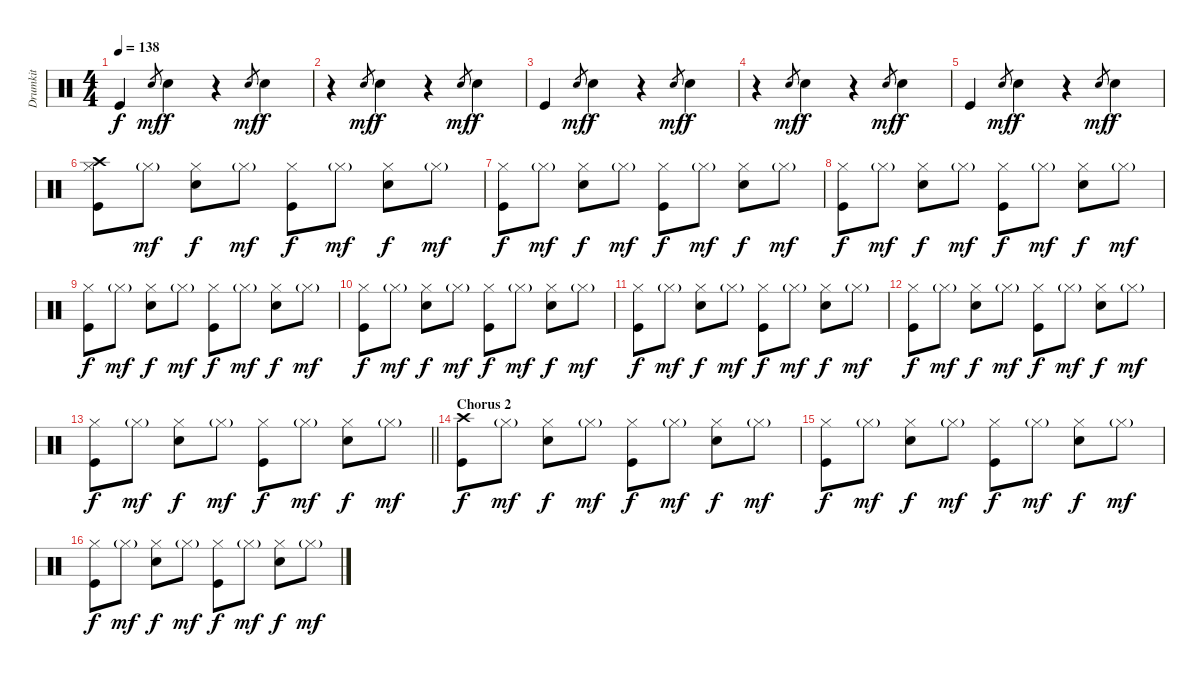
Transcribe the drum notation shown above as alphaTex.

\track ("Drumkit" "Drumkit") {instrument percussion}
\staff {score}
\articulation defaults
\ts (4 4)
\tempo 138
\clef neutral
\ks c "Kick (hit)".4{dy f} "Snare (hit)".8{gr dy mf} "Snare (hit) 2".4{dy f}
r.4 "Snare (hit)".8{gr dy mf} "Snare (hit) 2".4{dy f} |
r.4 "Snare (hit)".8{gr dy mf} "Snare (hit) 2".4{dy f} r.4 "Snare (hit)".8{gr dy mf} "Snare (hit) 2".4{dy f} |
"Kick (hit)".4 "Snare (hit)".8{gr dy mf} "Snare (hit) 2".4{dy f} r.4 "Snare (hit)".8{gr dy mf} "Snare (hit) 2".4{dy f} |
r.4 "Snare (hit)".8{gr dy mf} "Snare (hit) 2".4{dy f} r.4 "Snare (hit)".8{gr dy mf} "Snare (hit) 2".4{dy f} |
"Kick (hit)".4 "Snare (hit)".8{gr dy mf} "Snare (hit) 2".4{dy f} r.4 "Snare (hit)".8{gr dy mf} "Snare (hit) 2".4{dy f} |
("Crash high (hit)" "Hi-Hat (closed)" "Kick (hit)").8 "Hi-Hat (closed)"{g}.8{dy mf} ("Hi-Hat (closed)" "Snare (hit) 2").8{dy f} "Hi-Hat (closed)"{g}.8{dy mf} ("Hi-Hat (closed)" "Kick (hit)").8{dy f} "Hi-Hat (closed)"{g}.8{dy mf} ("Hi-Hat (closed)" "Snare (hit) 2").8{dy f} "Hi-Hat (closed)"{g}.8{dy mf} |
("Hi-Hat (closed)" "Kick (hit)").8{dy f} "Hi-Hat (closed)"{g}.8{dy mf} ("Hi-Hat (closed)" "Snare (hit) 2").8{dy f} "Hi-Hat (closed)"{g}.8{dy mf} ("Hi-Hat (closed)" "Kick (hit)").8{dy f} "Hi-Hat (closed)"{g}.8{dy mf} ("Hi-Hat (closed)" "Snare (hit) 2").8{dy f} "Hi-Hat (closed)"{g}.8{dy mf} |
("Hi-Hat (closed)" "Kick (hit)").8{dy f} "Hi-Hat (closed)"{g}.8{dy mf} ("Hi-Hat (closed)" "Snare (hit) 2").8{dy f} "Hi-Hat (closed)"{g}.8{dy mf} ("Hi-Hat (closed)" "Kick (hit)").8{dy f} "Hi-Hat (closed)"{g}.8{dy mf} ("Hi-Hat (closed)" "Snare (hit) 2").8{dy f} "Hi-Hat (closed)"{g}.8{dy mf} |
("Hi-Hat (closed)" "Kick (hit)").8{dy f} "Hi-Hat (closed)"{g}.8{dy mf} ("Hi-Hat (closed)" "Snare (hit) 2").8{dy f} "Hi-Hat (closed)"{g}.8{dy mf} ("Hi-Hat (closed)" "Kick (hit)").8{dy f} "Hi-Hat (closed)"{g}.8{dy mf} ("Hi-Hat (closed)" "Snare (hit) 2").8{dy f} "Hi-Hat (closed)"{g}.8{dy mf} |
("Hi-Hat (closed)" "Kick (hit)").8{dy f} "Hi-Hat (closed)"{g}.8{dy mf} ("Hi-Hat (closed)" "Snare (hit) 2").8{dy f} "Hi-Hat (closed)"{g}.8{dy mf} ("Hi-Hat (closed)" "Kick (hit)").8{dy f} "Hi-Hat (closed)"{g}.8{dy mf} ("Hi-Hat (closed)" "Snare (hit) 2").8{dy f} "Hi-Hat (closed)"{g}.8{dy mf} |
("Hi-Hat (closed)" "Kick (hit)").8{dy f} "Hi-Hat (closed)"{g}.8{dy mf} ("Hi-Hat (closed)" "Snare (hit) 2").8{dy f} "Hi-Hat (closed)"{g}.8{dy mf} ("Hi-Hat (closed)" "Kick (hit)").8{dy f} "Hi-Hat (closed)"{g}.8{dy mf} ("Hi-Hat (closed)" "Snare (hit) 2").8{dy f} "Hi-Hat (closed)"{g}.8{dy mf} |
("Hi-Hat (closed)" "Kick (hit)").8{dy f} "Hi-Hat (closed)"{g}.8{dy mf} ("Hi-Hat (closed)" "Snare (hit) 2").8{dy f} "Hi-Hat (closed)"{g}.8{dy mf} ("Hi-Hat (closed)" "Kick (hit)").8{dy f} "Hi-Hat (closed)"{g}.8{dy mf} ("Hi-Hat (closed)" "Snare (hit) 2").8{dy f} "Hi-Hat (closed)"{g}.8{dy mf} |
\barLineRight lightlight
("Hi-Hat (closed)" "Kick (hit)").8{dy f} "Hi-Hat (closed)"{g}.8{dy mf} ("Hi-Hat (closed)" "Snare (hit) 2").8{dy f} "Hi-Hat (closed)"{g}.8{dy mf} ("Hi-Hat (closed)" "Kick (hit)").8{dy f} "Hi-Hat (closed)"{g}.8{dy mf} ("Hi-Hat (closed)" "Snare (hit) 2").8{dy f} "Hi-Hat (closed)"{g}.8{dy mf} |
\section ("" "Chorus 2")
("Crash high (hit)" "Kick (hit)").8{dy f} "Hi-Hat (closed)"{g}.8{dy mf} ("Hi-Hat (closed)" "Snare (hit) 2").8{dy f} "Hi-Hat (closed)"{g}.8{dy mf} ("Hi-Hat (closed)" "Kick (hit)").8{dy f} "Hi-Hat (closed)"{g}.8{dy mf} ("Hi-Hat (closed)" "Snare (hit) 2").8{dy f} "Hi-Hat (closed)"{g}.8{dy mf} |
("Hi-Hat (closed)" "Kick (hit)").8{dy f} "Hi-Hat (closed)"{g}.8{dy mf} ("Hi-Hat (closed)" "Snare (hit) 2").8{dy f} "Hi-Hat (closed)"{g}.8{dy mf} ("Hi-Hat (closed)" "Kick (hit)").8{dy f} "Hi-Hat (closed)"{g}.8{dy mf} ("Hi-Hat (closed)" "Snare (hit) 2").8{dy f} "Hi-Hat (closed)"{g}.8{dy mf} |
("Hi-Hat (closed)" "Kick (hit)").8{dy f} "Hi-Hat (closed)"{g}.8{dy mf} ("Hi-Hat (closed)" "Snare (hit) 2").8{dy f} "Hi-Hat (closed)"{g}.8{dy mf} ("Hi-Hat (closed)" "Kick (hit)").8{dy f} "Hi-Hat (closed)"{g}.8{dy mf} ("Hi-Hat (closed)" "Snare (hit) 2").8{dy f} "Hi-Hat (closed)"{g}.8{dy mf}
